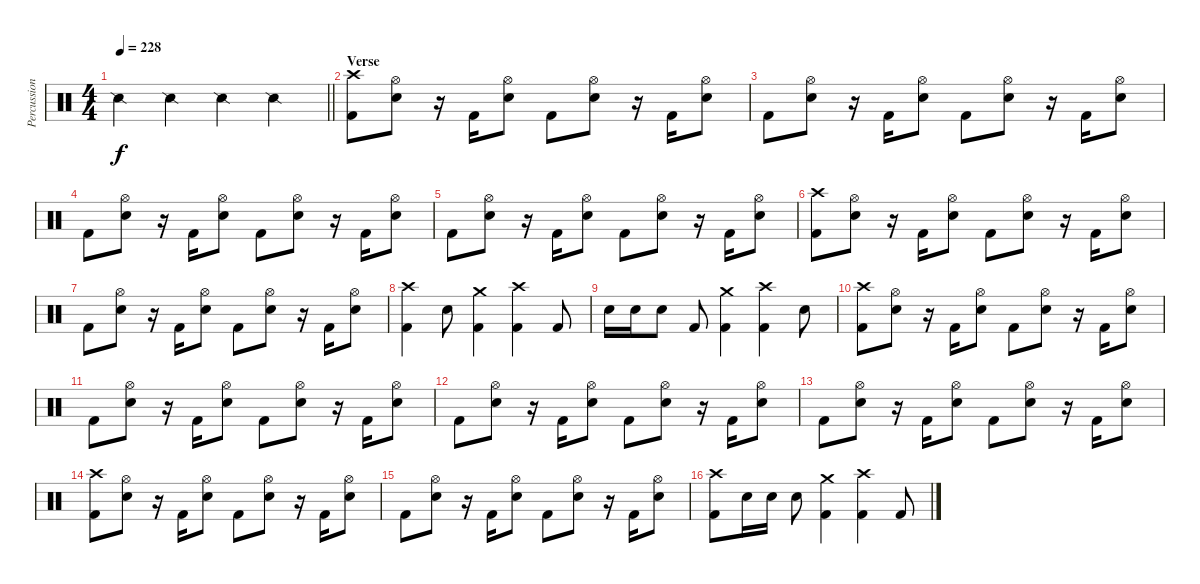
\track ("Percussion" "Percussion") {instrument percussion}
\staff {score}
\articulation defaults
\ts (4 4)
\tempo 228
\clef neutral
\barLineRight lightlight
\ks c "Snare (side stick) 2".4{dy f} "Snare (side stick) 2".4 "Snare (side stick) 2".4 "Snare (side stick) 2".4
|
\section ("" "Verse")
("Crash high (hit)" "Kick (hit) 2").8 ("Hi-Hat (open)" "Electric Snare (hit)").8 r.16 "Kick (hit) 2".16 ("Hi-Hat (open)" "Electric Snare (hit)").8 "Kick (hit) 2".8 ("Hi-Hat (open)" "Electric Snare (hit)").8 r.16 "Kick (hit) 2".16 ("Hi-Hat (open)" "Electric Snare (hit)").8 |
"Kick (hit) 2".8 ("Hi-Hat (open)" "Electric Snare (hit)").8 r.16 "Kick (hit) 2".16 ("Hi-Hat (open)" "Electric Snare (hit)").8 "Kick (hit) 2".8 ("Hi-Hat (open)" "Electric Snare (hit)").8 r.16 "Kick (hit) 2".16 ("Hi-Hat (open)" "Electric Snare (hit)").8 |
"Kick (hit) 2".8 ("Hi-Hat (open)" "Electric Snare (hit)").8 r.16 "Kick (hit) 2".16 ("Hi-Hat (open)" "Electric Snare (hit)").8 "Kick (hit) 2".8 ("Hi-Hat (open)" "Electric Snare (hit)").8 r.16 "Kick (hit) 2".16 ("Hi-Hat (open)" "Electric Snare (hit)").8 |
"Kick (hit) 2".8 ("Hi-Hat (open)" "Electric Snare (hit)").8 r.16 "Kick (hit) 2".16 ("Hi-Hat (open)" "Electric Snare (hit)").8 "Kick (hit) 2".8 ("Hi-Hat (open)" "Electric Snare (hit)").8 r.16 "Kick (hit) 2".16 ("Hi-Hat (open)" "Electric Snare (hit)").8 |
("Crash high (hit)" "Kick (hit) 2").8 ("Hi-Hat (open)" "Electric Snare (hit)").8 r.16 "Kick (hit) 2".16 ("Hi-Hat (open)" "Electric Snare (hit)").8 "Kick (hit) 2".8 ("Hi-Hat (open)" "Electric Snare (hit)").8 r.16 "Kick (hit) 2".16 ("Hi-Hat (open)" "Electric Snare (hit)").8 |
"Kick (hit) 2".8 ("Hi-Hat (open)" "Electric Snare (hit)").8 r.16 "Kick (hit) 2".16 ("Hi-Hat (open)" "Electric Snare (hit)").8 "Kick (hit) 2".8 ("Hi-Hat (open)" "Electric Snare (hit)").8 r.16 "Kick (hit) 2".16 ("Hi-Hat (open)" "Electric Snare (hit)").8 |
("Crash high (hit)" "Kick (hit) 2").4 "Electric Snare (hit)".8 ("Crash medium (hit)" "Kick (hit) 2").4 ("Crash high (hit)" "Kick (hit) 2").4 "Kick (hit) 2".8 |
"Electric Snare (hit)".16 "Electric Snare (hit)".16 "Electric Snare (hit)".8 "Kick (hit) 2".8 ("Crash medium (hit)" "Kick (hit) 2").4 ("Crash high (hit)" "Kick (hit) 2").4 "Electric Snare (hit)".8 |
("Crash high (hit)" "Kick (hit) 2").8 ("Hi-Hat (open)" "Electric Snare (hit)").8 r.16 "Kick (hit) 2".16 ("Hi-Hat (open)" "Electric Snare (hit)").8 "Kick (hit) 2".8 ("Hi-Hat (open)" "Electric Snare (hit)").8 r.16 "Kick (hit) 2".16 ("Hi-Hat (open)" "Electric Snare (hit)").8 |
"Kick (hit) 2".8 ("Hi-Hat (open)" "Electric Snare (hit)").8 r.16 "Kick (hit) 2".16 ("Hi-Hat (open)" "Electric Snare (hit)").8 "Kick (hit) 2".8 ("Hi-Hat (open)" "Electric Snare (hit)").8 r.16 "Kick (hit) 2".16 ("Hi-Hat (open)" "Electric Snare (hit)").8 |
"Kick (hit) 2".8 ("Hi-Hat (open)" "Electric Snare (hit)").8 r.16 "Kick (hit) 2".16 ("Hi-Hat (open)" "Electric Snare (hit)").8 "Kick (hit) 2".8 ("Hi-Hat (open)" "Electric Snare (hit)").8 r.16 "Kick (hit) 2".16 ("Hi-Hat (open)" "Electric Snare (hit)").8 |
"Kick (hit) 2".8 ("Hi-Hat (open)" "Electric Snare (hit)").8 r.16 "Kick (hit) 2".16 ("Hi-Hat (open)" "Electric Snare (hit)").8 "Kick (hit) 2".8 ("Hi-Hat (open)" "Electric Snare (hit)").8 r.16 "Kick (hit) 2".16 ("Hi-Hat (open)" "Electric Snare (hit)").8 |
("Crash high (hit)" "Kick (hit) 2").8 ("Hi-Hat (open)" "Electric Snare (hit)").8 r.16 "Kick (hit) 2".16 ("Hi-Hat (open)" "Electric Snare (hit)").8 "Kick (hit) 2".8 ("Hi-Hat (open)" "Electric Snare (hit)").8 r.16 "Kick (hit) 2".16 ("Hi-Hat (open)" "Electric Snare (hit)").8 |
"Kick (hit) 2".8 ("Hi-Hat (open)" "Electric Snare (hit)").8 r.16 "Kick (hit) 2".16 ("Hi-Hat (open)" "Electric Snare (hit)").8 "Kick (hit) 2".8 ("Hi-Hat (open)" "Electric Snare (hit)").8 r.16 "Kick (hit) 2".16 ("Hi-Hat (open)" "Electric Snare (hit)").8 |
("Crash high (hit)" "Kick (hit) 2").8 "Electric Snare (hit)".16 "Electric Snare (hit)".16 "Electric Snare (hit)".8 ("Crash medium (hit)" "Kick (hit) 2").4 ("Crash high (hit)" "Kick (hit) 2").4 "Kick (hit) 2".8
